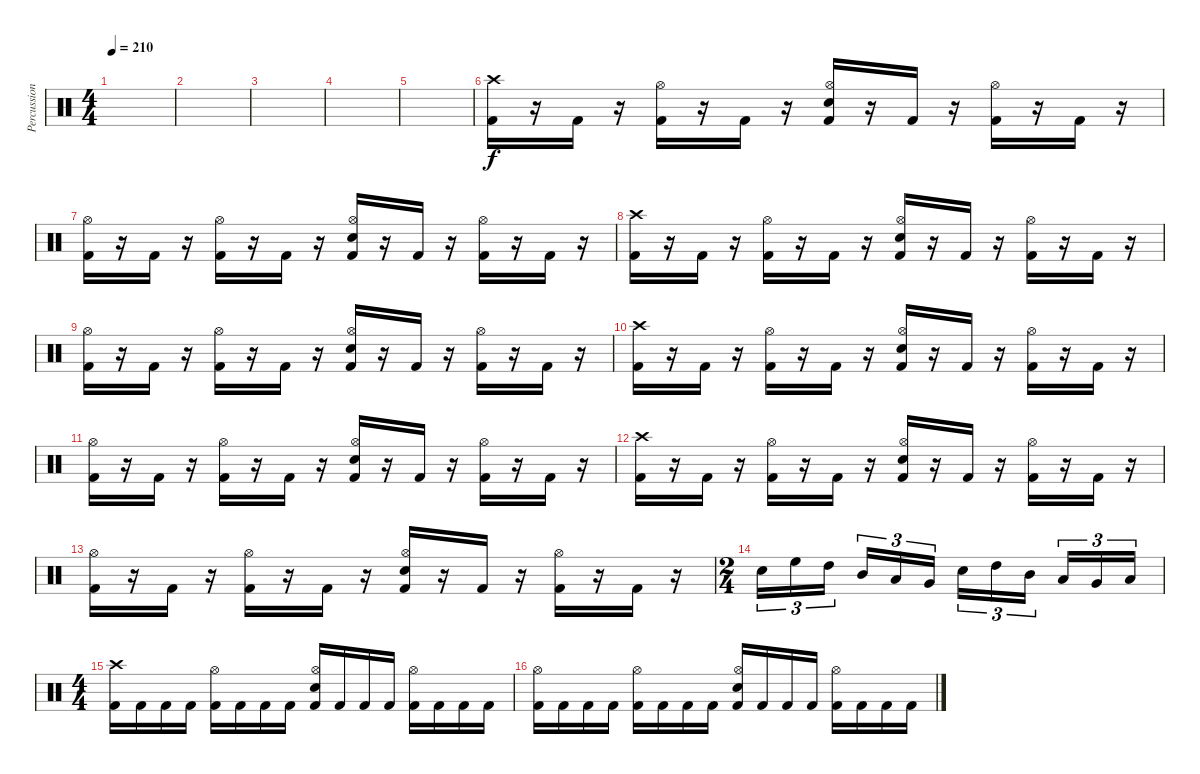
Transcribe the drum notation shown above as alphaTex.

\track ("Percussion" "Percussion") {instrument percussion}
\staff {score}
\articulation defaults
\ts (4 4)
\tempo 210
\clef neutral
\ks c
|
|
|
|
|
("Crash high (hit)" "Kick (hit) 2").16 r.16 "Kick (hit) 2".16 r.16 ("Hi-Hat (open)" "Kick (hit) 2").16 r.16 "Kick (hit) 2".16 r.16 ("Hi-Hat (open)" "Electric Snare (hit)" "Kick (hit) 2").16 r.16 "Kick (hit) 2".16 r.16 ("Hi-Hat (open)" "Kick (hit) 2").16 r.16 "Kick (hit) 2".16 r.16 |
("Hi-Hat (open)" "Kick (hit) 2").16 r.16 "Kick (hit) 2".16 r.16 ("Hi-Hat (open)" "Kick (hit) 2").16 r.16 "Kick (hit) 2".16 r.16 ("Hi-Hat (open)" "Electric Snare (hit)" "Kick (hit) 2").16 r.16 "Kick (hit) 2".16 r.16 ("Hi-Hat (open)" "Kick (hit) 2").16 r.16 "Kick (hit) 2".16 r.16 |
("Crash high (hit)" "Kick (hit) 2").16 r.16 "Kick (hit) 2".16 r.16 ("Hi-Hat (open)" "Kick (hit) 2").16 r.16 "Kick (hit) 2".16 r.16 ("Hi-Hat (open)" "Electric Snare (hit)" "Kick (hit) 2").16 r.16 "Kick (hit) 2".16 r.16 ("Hi-Hat (open)" "Kick (hit) 2").16 r.16 "Kick (hit) 2".16 r.16 |
("Hi-Hat (open)" "Kick (hit) 2").16 r.16 "Kick (hit) 2".16 r.16 ("Hi-Hat (open)" "Kick (hit) 2").16 r.16 "Kick (hit) 2".16 r.16 ("Hi-Hat (open)" "Electric Snare (hit)" "Kick (hit) 2").16 r.16 "Kick (hit) 2".16 r.16 ("Hi-Hat (open)" "Kick (hit) 2").16 r.16 "Kick (hit) 2".16 r.16 |
("Crash high (hit)" "Kick (hit) 2").16 r.16 "Kick (hit) 2".16 r.16 ("Hi-Hat (open)" "Kick (hit) 2").16 r.16 "Kick (hit) 2".16 r.16 ("Hi-Hat (open)" "Electric Snare (hit)" "Kick (hit) 2").16 r.16 "Kick (hit) 2".16 r.16 ("Hi-Hat (open)" "Kick (hit) 2").16 r.16 "Kick (hit) 2".16 r.16 |
("Hi-Hat (open)" "Kick (hit) 2").16 r.16 "Kick (hit) 2".16 r.16 ("Hi-Hat (open)" "Kick (hit) 2").16 r.16 "Kick (hit) 2".16 r.16 ("Hi-Hat (open)" "Electric Snare (hit)" "Kick (hit) 2").16 r.16 "Kick (hit) 2".16 r.16 ("Hi-Hat (open)" "Kick (hit) 2").16 r.16 "Kick (hit) 2".16 r.16 |
("Crash high (hit)" "Kick (hit) 2").16 r.16 "Kick (hit) 2".16 r.16 ("Hi-Hat (open)" "Kick (hit) 2").16 r.16 "Kick (hit) 2".16 r.16 ("Hi-Hat (open)" "Electric Snare (hit)" "Kick (hit) 2").16 r.16 "Kick (hit) 2".16 r.16 ("Hi-Hat (open)" "Kick (hit) 2").16 r.16 "Kick (hit) 2".16 r.16 |
("Hi-Hat (open)" "Kick (hit) 2").16 r.16 "Kick (hit) 2".16 r.16 ("Hi-Hat (open)" "Kick (hit) 2").16 r.16 "Kick (hit) 2".16 r.16 ("Hi-Hat (open)" "Electric Snare (hit)" "Kick (hit) 2").16 r.16 "Kick (hit) 2".16 r.16 ("Hi-Hat (open)" "Kick (hit) 2").16 r.16 "Kick (hit) 2".16 r.16 |
\ts (2 4)
"Electric Snare (hit)".16{tu (3 2)} "High Floor Tom (hit)".16{tu (3 2)} "High Tom (hit)".16{tu (3 2)} "Mid Tom (hit)".16{tu (3 2)} "Low Tom (hit)".16{tu (3 2)} "Very Low Tom (hit)".16{tu (3 2)} "Electric Snare (hit)".16{tu (3 2)} "High Tom (hit)".16{tu (3 2)} "Mid Tom (hit)".16{tu (3 2)} "Low Tom (hit)".16{tu (3 2)} "Very Low Tom (hit)".16{tu (3 2)} "Low Floor Tom (hit)".16{tu (3 2)} |
\ts (4 4)
("Crash high (hit)" "Kick (hit) 2").16 "Kick (hit) 2".16 "Kick (hit) 2".16 "Kick (hit) 2".16 ("Hi-Hat (open)" "Kick (hit) 2").16 "Kick (hit) 2".16 "Kick (hit) 2".16 "Kick (hit) 2".16 ("Hi-Hat (open)" "Electric Snare (hit)" "Kick (hit) 2").16 "Kick (hit) 2".16 "Kick (hit) 2".16 "Kick (hit) 2".16 ("Hi-Hat (open)" "Kick (hit) 2").16 "Kick (hit) 2".16 "Kick (hit) 2".16 "Kick (hit) 2".16 |
("Hi-Hat (open)" "Kick (hit) 2").16 "Kick (hit) 2".16 "Kick (hit) 2".16 "Kick (hit) 2".16 ("Hi-Hat (open)" "Kick (hit) 2").16 "Kick (hit) 2".16 "Kick (hit) 2".16 "Kick (hit) 2".16 ("Hi-Hat (open)" "Electric Snare (hit)" "Kick (hit) 2").16 "Kick (hit) 2".16 "Kick (hit) 2".16 "Kick (hit) 2".16 ("Hi-Hat (open)" "Kick (hit) 2").16 "Kick (hit) 2".16 "Kick (hit) 2".16 "Kick (hit) 2".16
